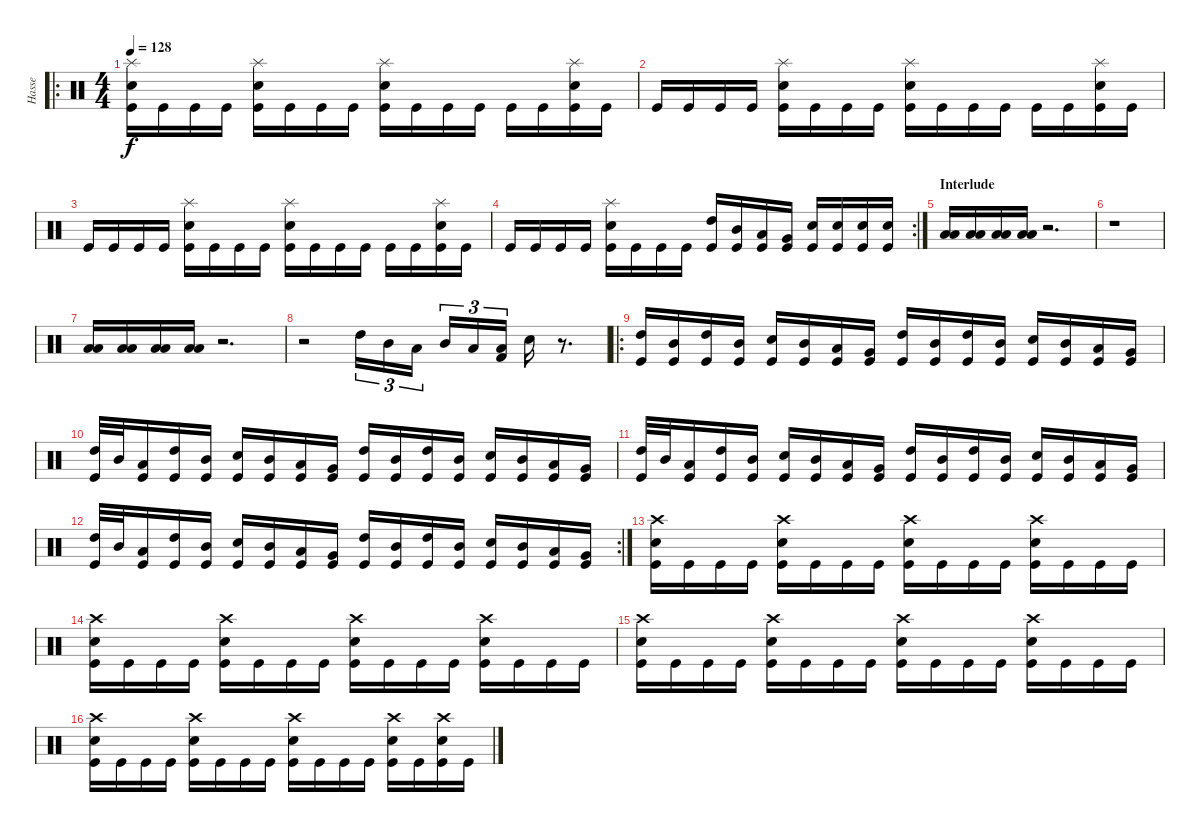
\track ("Hasse" "Hasse") {instrument percussion}
\staff {score}
\articulation defaults
\ro
\ts (4 4)
\tempo 128
\clef neutral
\ks c
("Splash (hit)" "Snare (hit) 2" "Kick (hit)").16{dy f} "Kick (hit)".16 "Kick (hit)".16 "Kick (hit)".16 ("Splash (hit)" "Snare (hit) 2" "Kick (hit)").16 "Kick (hit)".16 "Kick (hit)".16 "Kick (hit)".16 ("Splash (hit)" "Snare (hit) 2" "Kick (hit)").16 "Kick (hit)".16 "Kick (hit)".16 "Kick (hit)".16 "Kick (hit)".16 "Kick (hit)".16 ("Splash (hit)" "Snare (hit) 2" "Kick (hit)").16 "Kick (hit)".16 |
"Kick (hit)".16 "Kick (hit)".16 "Kick (hit)".16 "Kick (hit)".16 ("Splash (hit)" "Snare (hit) 2" "Kick (hit)").16 "Kick (hit)".16 "Kick (hit)".16 "Kick (hit)".16 ("Splash (hit)" "Snare (hit) 2" "Kick (hit)").16 "Kick (hit)".16 "Kick (hit)".16 "Kick (hit)".16 "Kick (hit)".16 "Kick (hit)".16 ("Splash (hit)" "Snare (hit) 2" "Kick (hit)").16 "Kick (hit)".16 |
"Kick (hit)".16 "Kick (hit)".16 "Kick (hit)".16 "Kick (hit)".16 ("Splash (hit)" "Snare (hit) 2" "Kick (hit)").16 "Kick (hit)".16 "Kick (hit)".16 "Kick (hit)".16 ("Splash (hit)" "Snare (hit) 2" "Kick (hit)").16 "Kick (hit)".16 "Kick (hit)".16 "Kick (hit)".16 "Kick (hit)".16 "Kick (hit)".16 ("Splash (hit)" "Snare (hit) 2" "Kick (hit)").16 "Kick (hit)".16 |
\rc 2 "Kick (hit)".16 "Kick (hit)".16 "Kick (hit)".16 "Kick (hit)".16
("Splash (hit)" "Snare (hit) 2" "Kick (hit)").16 "Kick (hit)".16 "Kick (hit)".16 "Kick (hit)".16 ("High Tom (hit)" "Kick (hit)").16 ("Mid Tom (hit)" "Kick (hit)").16 ("Low Tom (hit)" "Kick (hit)").16 ("Very Low Tom (hit)" "Kick (hit)").16 ("Snare (hit) 2" "Kick (hit)").16 ("Snare (hit) 2" "Kick (hit)").16 ("Snare (hit) 2" "Kick (hit)").16 ("Snare (hit) 2" "Kick (hit)").16 |
\section ("" "Interlude")
("Low Tom (hit)" "Low Floor Tom (hit)").16 ("Low Tom (hit)" "Low Floor Tom (hit)").16 ("Low Tom (hit)" "Low Floor Tom (hit)").16 ("Low Tom (hit)" "Low Floor Tom (hit)").16 r.2{d} |
r.1 |
("Low Tom (hit)" "Low Floor Tom (hit)").16 ("Low Tom (hit)" "Low Floor Tom (hit)").16 ("Low Tom (hit)" "Low Floor Tom (hit)").16 ("Low Tom (hit)" "Low Floor Tom (hit)").16 r.2{d} |
r.2 "High Tom (hit)".16{tu (3 2)} "Mid Tom (hit)".16{tu (3 2)} "Low Tom (hit)".16{tu (3 2)} "Mid Tom (hit)".16{tu (3 2)} "Low Tom (hit)".16{tu (3 2)} ("Low Floor Tom (hit)" "Kick (hit) 2").16{tu (3 2)} "Electric Snare (hit)".16 r.8{d} |
\ro
("High Tom (hit)" "Kick (hit)").16 ("Mid Tom (hit)" "Kick (hit)").16 ("High Tom (hit)" "Kick (hit)").16 ("Mid Tom (hit)" "Kick (hit)").16 ("Snare (hit) 2" "Kick (hit)").16 ("Mid Tom (hit)" "Kick (hit)").16 ("Low Tom (hit)" "Kick (hit)").16 ("Very Low Tom (hit)" "Kick (hit)").16 ("High Tom (hit)" "Kick (hit)").16 ("Mid Tom (hit)" "Kick (hit)").16 ("High Tom (hit)" "Kick (hit)").16 ("Mid Tom (hit)" "Kick (hit)").16 ("Snare (hit) 2" "Kick (hit)").16 ("Mid Tom (hit)" "Kick (hit)").16 ("Low Tom (hit)" "Kick (hit)").16 ("Very Low Tom (hit)" "Kick (hit)").16 |
("High Tom (hit)" "Kick (hit)").32 "Mid Tom (hit)".32 ("Low Tom (hit)" "Kick (hit)").16 ("High Tom (hit)" "Kick (hit)").16 ("Mid Tom (hit)" "Kick (hit)").16 ("Snare (hit) 2" "Kick (hit)").16 ("Mid Tom (hit)" "Kick (hit)").16 ("Low Tom (hit)" "Kick (hit)").16 ("Very Low Tom (hit)" "Kick (hit)").16 ("High Tom (hit)" "Kick (hit)").16 ("Mid Tom (hit)" "Kick (hit)").16 ("High Tom (hit)" "Kick (hit)").16 ("Mid Tom (hit)" "Kick (hit)").16 ("Snare (hit) 2" "Kick (hit)").16 ("Mid Tom (hit)" "Kick (hit)").16 ("Low Tom (hit)" "Kick (hit)").16 ("Very Low Tom (hit)" "Kick (hit)").16 |
("High Tom (hit)" "Kick (hit)").32 "Mid Tom (hit)".32 ("Low Tom (hit)" "Kick (hit)").16 ("High Tom (hit)" "Kick (hit)").16 ("Mid Tom (hit)" "Kick (hit)").16 ("Snare (hit) 2" "Kick (hit)").16 ("Mid Tom (hit)" "Kick (hit)").16 ("Low Tom (hit)" "Kick (hit)").16 ("Very Low Tom (hit)" "Kick (hit)").16 ("High Tom (hit)" "Kick (hit)").16 ("Mid Tom (hit)" "Kick (hit)").16 ("High Tom (hit)" "Kick (hit)").16 ("Mid Tom (hit)" "Kick (hit)").16 ("Snare (hit) 2" "Kick (hit)").16 ("Mid Tom (hit)" "Kick (hit)").16 ("Low Tom (hit)" "Kick (hit)").16 ("Very Low Tom (hit)" "Kick (hit)").16 |
\rc 2
("High Tom (hit)" "Kick (hit)").32 "Mid Tom (hit)".32 ("Low Tom (hit)" "Kick (hit)").16 ("High Tom (hit)" "Kick (hit)").16 ("Mid Tom (hit)" "Kick (hit)").16 ("Snare (hit) 2" "Kick (hit)").16 ("Mid Tom (hit)" "Kick (hit)").16 ("Low Tom (hit)" "Kick (hit)").16 ("Very Low Tom (hit)" "Kick (hit)").16 ("High Tom (hit)" "Kick (hit)").16 ("Mid Tom (hit)" "Kick (hit)").16 ("High Tom (hit)" "Kick (hit)").16 ("Mid Tom (hit)" "Kick (hit)").16 ("Snare (hit) 2" "Kick (hit)").16 ("Mid Tom (hit)" "Kick (hit)").16 ("Low Tom (hit)" "Kick (hit)").16 ("Very Low Tom (hit)" "Kick (hit)").16 |
("Crash high (hit)" "Snare (hit) 2" "Kick (hit)").16 "Kick (hit)".16 "Kick (hit)".16 "Kick (hit)".16 ("Crash high (hit)" "Snare (hit) 2" "Kick (hit)").16 "Kick (hit)".16 "Kick (hit)".16 "Kick (hit)".16 ("Crash high (hit)" "Snare (hit) 2" "Kick (hit)").16 "Kick (hit)".16 "Kick (hit)".16 "Kick (hit)".16 ("Crash high (hit)" "Snare (hit) 2" "Kick (hit)").16 "Kick (hit)".16 "Kick (hit)".16 "Kick (hit)".16 |
("Crash high (hit)" "Snare (hit) 2" "Kick (hit)").16 "Kick (hit)".16 "Kick (hit)".16 "Kick (hit)".16 ("Crash high (hit)" "Snare (hit) 2" "Kick (hit)").16 "Kick (hit)".16 "Kick (hit)".16 "Kick (hit)".16 ("Crash high (hit)" "Snare (hit) 2" "Kick (hit)").16 "Kick (hit)".16 "Kick (hit)".16 "Kick (hit)".16 ("Crash high (hit)" "Snare (hit) 2" "Kick (hit)").16 "Kick (hit)".16 "Kick (hit)".16 "Kick (hit)".16 |
("Crash high (hit)" "Snare (hit) 2" "Kick (hit)").16 "Kick (hit)".16 "Kick (hit)".16 "Kick (hit)".16 ("Crash high (hit)" "Snare (hit) 2" "Kick (hit)").16 "Kick (hit)".16 "Kick (hit)".16 "Kick (hit)".16 ("Crash high (hit)" "Snare (hit) 2" "Kick (hit)").16 "Kick (hit)".16 "Kick (hit)".16 "Kick (hit)".16 ("Crash high (hit)" "Snare (hit) 2" "Kick (hit)").16 "Kick (hit)".16 "Kick (hit)".16 "Kick (hit)".16 |
("Crash high (hit)" "Snare (hit) 2" "Kick (hit)").16 "Kick (hit)".16 "Kick (hit)".16 "Kick (hit)".16 ("Crash high (hit)" "Snare (hit) 2" "Kick (hit)").16 "Kick (hit)".16 "Kick (hit)".16 "Kick (hit)".16 ("Crash high (hit)" "Snare (hit) 2" "Kick (hit)").16 "Kick (hit)".16 "Kick (hit)".16 "Kick (hit)".16 ("Crash high (hit)" "Snare (hit) 2" "Kick (hit)").16 "Kick (hit)".16 ("Crash high (hit)" "Snare (hit) 2" "Kick (hit)").16 "Kick (hit)".16
